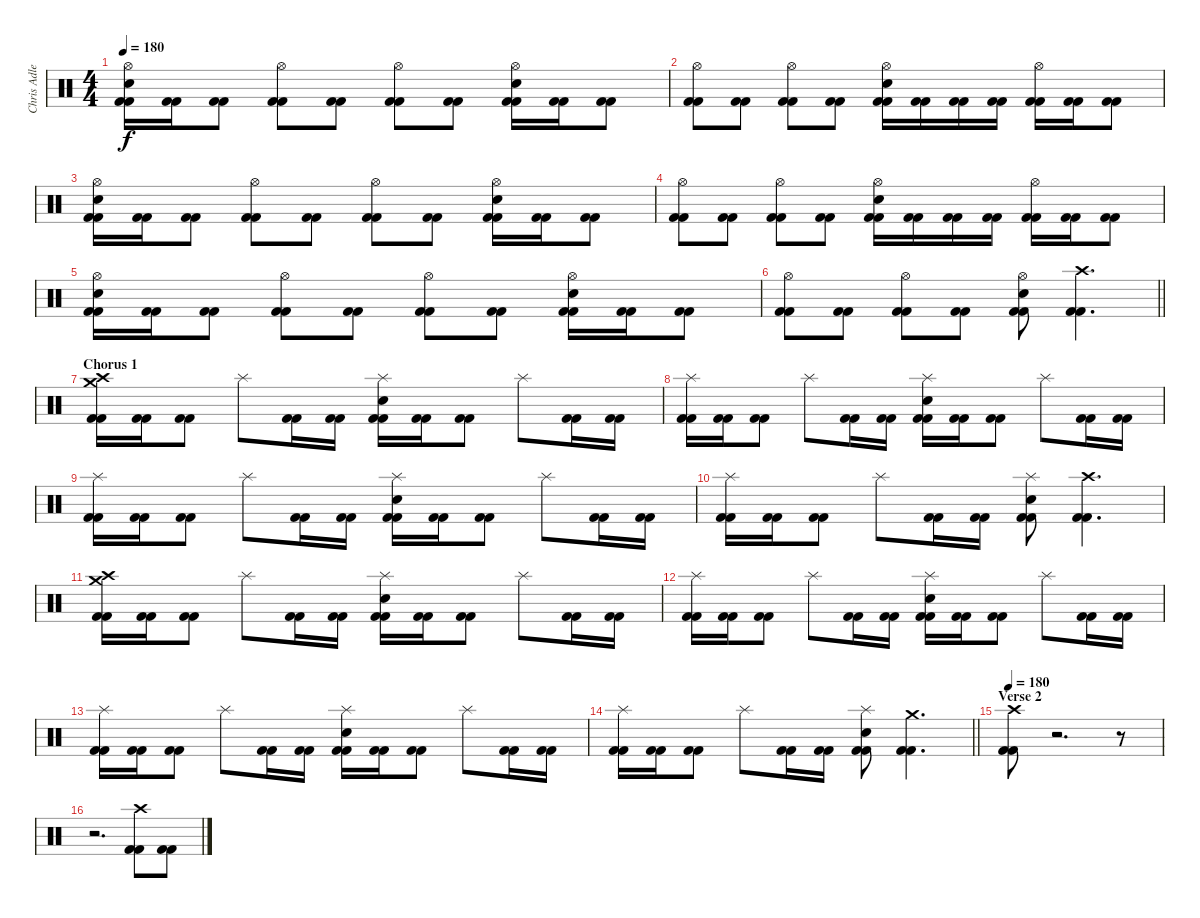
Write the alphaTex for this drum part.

\track ("Chris Adler" "Chris Adle") {instrument percussion}
\staff {score}
\articulation defaults
\ts (4 4)
\tempo 180
\clef neutral
\ks c
("Hi-Hat (open)" "Electric Snare (hit)" "Kick (hit) 2" "Kick (hit) 2").16{dy f} ("Kick (hit) 2" "Kick (hit) 2").16 ("Kick (hit) 2" "Kick (hit) 2").8 ("Hi-Hat (open)" "Kick (hit) 2" "Kick (hit) 2").8 ("Kick (hit) 2" "Kick (hit) 2").8 ("Hi-Hat (open)" "Kick (hit) 2" "Kick (hit) 2").8 ("Kick (hit) 2" "Kick (hit) 2").8 ("Hi-Hat (open)" "Electric Snare (hit)" "Kick (hit) 2" "Kick (hit) 2").16 ("Kick (hit) 2" "Kick (hit) 2").16 ("Kick (hit) 2" "Kick (hit) 2").8 |
("Hi-Hat (open)" "Kick (hit) 2" "Kick (hit) 2").8 ("Kick (hit) 2" "Kick (hit) 2").8 ("Hi-Hat (open)" "Kick (hit) 2" "Kick (hit) 2").8 ("Kick (hit) 2" "Kick (hit) 2").8 ("Hi-Hat (open)" "Electric Snare (hit)" "Kick (hit) 2" "Kick (hit) 2").16 ("Kick (hit) 2" "Kick (hit) 2").16 ("Kick (hit) 2" "Kick (hit) 2").16 ("Kick (hit) 2" "Kick (hit) 2").16 ("Hi-Hat (open)" "Kick (hit) 2" "Kick (hit) 2").16 ("Kick (hit) 2" "Kick (hit) 2").16 ("Kick (hit) 2" "Kick (hit) 2").8 |
("Hi-Hat (open)" "Electric Snare (hit)" "Kick (hit) 2" "Kick (hit) 2").16 ("Kick (hit) 2" "Kick (hit) 2").16 ("Kick (hit) 2" "Kick (hit) 2").8 ("Hi-Hat (open)" "Kick (hit) 2" "Kick (hit) 2").8 ("Kick (hit) 2" "Kick (hit) 2").8 ("Hi-Hat (open)" "Kick (hit) 2" "Kick (hit) 2").8 ("Kick (hit) 2" "Kick (hit) 2").8 ("Hi-Hat (open)" "Electric Snare (hit)" "Kick (hit) 2" "Kick (hit) 2").16 ("Kick (hit) 2" "Kick (hit) 2").16 ("Kick (hit) 2" "Kick (hit) 2").8 |
("Hi-Hat (open)" "Kick (hit) 2" "Kick (hit) 2").8 ("Kick (hit) 2" "Kick (hit) 2").8 ("Hi-Hat (open)" "Kick (hit) 2" "Kick (hit) 2").8 ("Kick (hit) 2" "Kick (hit) 2").8 ("Hi-Hat (open)" "Electric Snare (hit)" "Kick (hit) 2" "Kick (hit) 2").16 ("Kick (hit) 2" "Kick (hit) 2").16 ("Kick (hit) 2" "Kick (hit) 2").16 ("Kick (hit) 2" "Kick (hit) 2").16 ("Hi-Hat (open)" "Kick (hit) 2" "Kick (hit) 2").16 ("Kick (hit) 2" "Kick (hit) 2").16 ("Kick (hit) 2" "Kick (hit) 2").8 |
("Hi-Hat (open)" "Electric Snare (hit)" "Kick (hit) 2" "Kick (hit) 2").16 ("Kick (hit) 2" "Kick (hit) 2").16 ("Kick (hit) 2" "Kick (hit) 2").8 ("Hi-Hat (open)" "Kick (hit) 2" "Kick (hit) 2").8 ("Kick (hit) 2" "Kick (hit) 2").8 ("Hi-Hat (open)" "Kick (hit) 2" "Kick (hit) 2").8 ("Kick (hit) 2" "Kick (hit) 2").8 ("Hi-Hat (open)" "Electric Snare (hit)" "Kick (hit) 2" "Kick (hit) 2").16 ("Kick (hit) 2" "Kick (hit) 2").16 ("Kick (hit) 2" "Kick (hit) 2").8 |
\barLineRight lightlight
("Hi-Hat (open)" "Kick (hit) 2" "Kick (hit) 2").8 ("Kick (hit) 2" "Kick (hit) 2").8 ("Hi-Hat (open)" "Kick (hit) 2" "Kick (hit) 2").8 ("Kick (hit) 2" "Kick (hit) 2").8 ("Hi-Hat (open)" "Electric Snare (hit)" "Kick (hit) 2" "Kick (hit) 2").8 ("Crash high (hit)" "Kick (hit) 2" "Kick (hit) 2").4{d} |
\section ("" "Chorus 1")
("Crash medium (hit)" "Crash high (hit)" "Kick (hit) 2" "Kick (hit) 2").16 ("Kick (hit) 2" "Kick (hit) 2").16 ("Kick (hit) 2" "Kick (hit) 2").8 "Splash (hit)".8 ("Kick (hit) 2" "Kick (hit) 2").16 ("Kick (hit) 2" "Kick (hit) 2").16 ("Splash (hit)" "Electric Snare (hit)" "Kick (hit) 2" "Kick (hit) 2").16 ("Kick (hit) 2" "Kick (hit) 2").16 ("Kick (hit) 2" "Kick (hit) 2").8 "Splash (hit)".8 ("Kick (hit) 2" "Kick (hit) 2").16 ("Kick (hit) 2" "Kick (hit) 2").16 |
("Splash (hit)" "Kick (hit) 2" "Kick (hit) 2").16 ("Kick (hit) 2" "Kick (hit) 2").16 ("Kick (hit) 2" "Kick (hit) 2").8 "Splash (hit)".8 ("Kick (hit) 2" "Kick (hit) 2").16 ("Kick (hit) 2" "Kick (hit) 2").16 ("Splash (hit)" "Electric Snare (hit)" "Kick (hit) 2" "Kick (hit) 2").16 ("Kick (hit) 2" "Kick (hit) 2").16 ("Kick (hit) 2" "Kick (hit) 2").8 "Splash (hit)".8 ("Kick (hit) 2" "Kick (hit) 2").16 ("Kick (hit) 2" "Kick (hit) 2").16 |
("Splash (hit)" "Kick (hit) 2" "Kick (hit) 2").16 ("Kick (hit) 2" "Kick (hit) 2").16 ("Kick (hit) 2" "Kick (hit) 2").8 "Splash (hit)".8 ("Kick (hit) 2" "Kick (hit) 2").16 ("Kick (hit) 2" "Kick (hit) 2").16 ("Splash (hit)" "Electric Snare (hit)" "Kick (hit) 2" "Kick (hit) 2").16 ("Kick (hit) 2" "Kick (hit) 2").16 ("Kick (hit) 2" "Kick (hit) 2").8 "Splash (hit)".8 ("Kick (hit) 2" "Kick (hit) 2").16 ("Kick (hit) 2" "Kick (hit) 2").16 |
("Splash (hit)" "Kick (hit) 2" "Kick (hit) 2").16 ("Kick (hit) 2" "Kick (hit) 2").16 ("Kick (hit) 2" "Kick (hit) 2").8 "Splash (hit)".8 ("Kick (hit) 2" "Kick (hit) 2").16 ("Kick (hit) 2" "Kick (hit) 2").16 ("Splash (hit)" "Electric Snare (hit)" "Kick (hit) 2" "Kick (hit) 2").8 ("Crash high (hit)" "Kick (hit) 2" "Kick (hit) 2").4{d} |
("Crash medium (hit)" "Crash high (hit)" "Kick (hit) 2" "Kick (hit) 2").16 ("Kick (hit) 2" "Kick (hit) 2").16 ("Kick (hit) 2" "Kick (hit) 2").8 "Splash (hit)".8 ("Kick (hit) 2" "Kick (hit) 2").16 ("Kick (hit) 2" "Kick (hit) 2").16 ("Splash (hit)" "Electric Snare (hit)" "Kick (hit) 2" "Kick (hit) 2").16 ("Kick (hit) 2" "Kick (hit) 2").16 ("Kick (hit) 2" "Kick (hit) 2").8 "Splash (hit)".8 ("Kick (hit) 2" "Kick (hit) 2").16 ("Kick (hit) 2" "Kick (hit) 2").16 |
("Splash (hit)" "Kick (hit) 2" "Kick (hit) 2").16 ("Kick (hit) 2" "Kick (hit) 2").16 ("Kick (hit) 2" "Kick (hit) 2").8 "Splash (hit)".8 ("Kick (hit) 2" "Kick (hit) 2").16 ("Kick (hit) 2" "Kick (hit) 2").16 ("Splash (hit)" "Electric Snare (hit)" "Kick (hit) 2" "Kick (hit) 2").16 ("Kick (hit) 2" "Kick (hit) 2").16 ("Kick (hit) 2" "Kick (hit) 2").8 "Splash (hit)".8 ("Kick (hit) 2" "Kick (hit) 2").16 ("Kick (hit) 2" "Kick (hit) 2").16 |
("Splash (hit)" "Kick (hit) 2" "Kick (hit) 2").16 ("Kick (hit) 2" "Kick (hit) 2").16 ("Kick (hit) 2" "Kick (hit) 2").8 "Splash (hit)".8 ("Kick (hit) 2" "Kick (hit) 2").16 ("Kick (hit) 2" "Kick (hit) 2").16 ("Splash (hit)" "Electric Snare (hit)" "Kick (hit) 2" "Kick (hit) 2").16 ("Kick (hit) 2" "Kick (hit) 2").16 ("Kick (hit) 2" "Kick (hit) 2").8 "Splash (hit)".8 ("Kick (hit) 2" "Kick (hit) 2").16 ("Kick (hit) 2" "Kick (hit) 2").16 |
\barLineRight lightlight
("Splash (hit)" "Kick (hit) 2" "Kick (hit) 2").16 ("Kick (hit) 2" "Kick (hit) 2").16 ("Kick (hit) 2" "Kick (hit) 2").8 "Splash (hit)".8 ("Kick (hit) 2" "Kick (hit) 2").16 ("Kick (hit) 2" "Kick (hit) 2").16 ("Splash (hit)" "Electric Snare (hit)" "Kick (hit) 2" "Kick (hit) 2").8 ("Crash medium (hit)" "Kick (hit) 2" "Kick (hit) 2").4{d} |
\section ("" "Verse 2")
\tempo 180
("Crash high (hit)" "Kick (hit) 2" "Kick (hit) 2").8 r.2{d volume 0} r.8 |
r.2{d} ("Crash high (hit)" "Kick (hit) 2" "Kick (hit) 2").8{volume 13} ("Kick (hit) 2" "Kick (hit) 2").8
